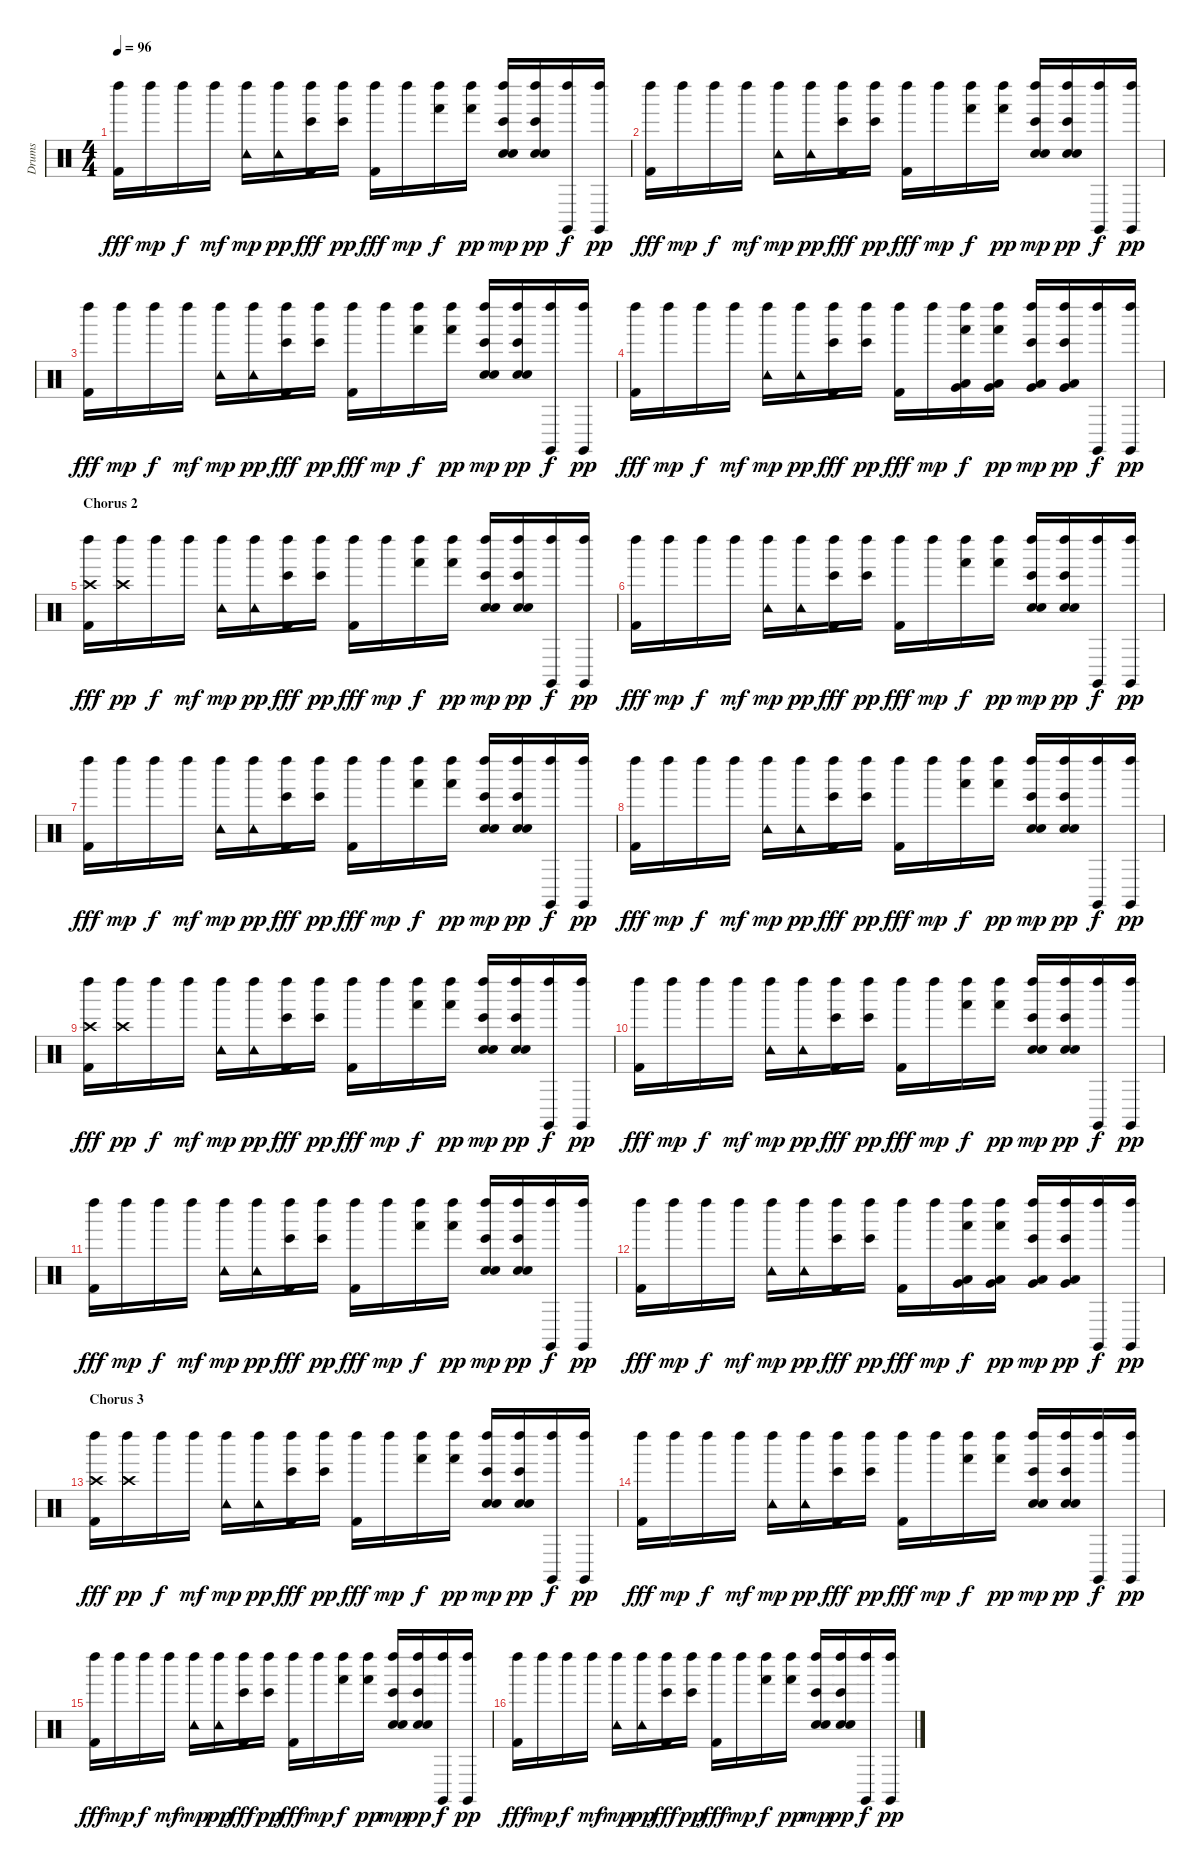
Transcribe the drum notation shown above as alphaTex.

\track ("Drums" "Drums") {instrument percussion}
\staff {score}
\articulation defaults
\ts (4 4)
\tempo 96
\clef neutral
\ks c
("Left Maraca (hit)" "Kick (hit) 2").16{dy fff} "Left Maraca (hit)".16{dy mp} "Left Maraca (hit)".16{dy f} "Left Maraca (hit)".16{dy mf} ("Left Maraca (hit)" "Tambourine (hit)").16{dy mp} ("Left Maraca (hit)" "Tambourine (hit)").16{dy pp} ("Left Maraca (hit)" "Bongo High (hit)" "Kick (hit) 2").16{dy fff} ("Left Maraca (hit)" "Bongo High (hit)").16{dy pp} ("Left Maraca (hit)" "Kick (hit) 2").16{dy fff} "Left Maraca (hit)".16{dy mp} ("Left Maraca (hit)" "Hand (hit)").16{dy f} ("Left Maraca (hit)" "Hand (hit)").16{dy pp} ("Left Maraca (hit)" "Bongo High (hit)" "Snare (hit) 2" "Electric Snare (hit)").16{dy mp} ("Left Maraca (hit)" "Bongo High (hit)" "Snare (hit) 2" "Electric Snare (hit)").16{dy pp} ("Left Maraca (hit)" "Claves (hit)").16{dy f} ("Left Maraca (hit)" "Claves (hit)").16{dy pp} |
("Left Maraca (hit)" "Kick (hit) 2").16{dy fff} "Left Maraca (hit)".16{dy mp} "Left Maraca (hit)".16{dy f} "Left Maraca (hit)".16{dy mf} ("Left Maraca (hit)" "Tambourine (hit)").16{dy mp} ("Left Maraca (hit)" "Tambourine (hit)").16{dy pp} ("Left Maraca (hit)" "Bongo High (hit)" "Kick (hit) 2").16{dy fff} ("Left Maraca (hit)" "Bongo High (hit)").16{dy pp} ("Left Maraca (hit)" "Kick (hit) 2").16{dy fff} "Left Maraca (hit)".16{dy mp} ("Left Maraca (hit)" "Hand (hit)").16{dy f} ("Left Maraca (hit)" "Hand (hit)").16{dy pp} ("Left Maraca (hit)" "Bongo High (hit)" "Snare (hit) 2" "Electric Snare (hit)").16{dy mp} ("Left Maraca (hit)" "Bongo High (hit)" "Snare (hit) 2" "Electric Snare (hit)").16{dy pp} ("Left Maraca (hit)" "Claves (hit)").16{dy f} ("Left Maraca (hit)" "Claves (hit)").16{dy pp} |
("Left Maraca (hit)" "Kick (hit) 2").16{dy fff} "Left Maraca (hit)".16{dy mp} "Left Maraca (hit)".16{dy f} "Left Maraca (hit)".16{dy mf} ("Left Maraca (hit)" "Tambourine (hit)").16{dy mp} ("Left Maraca (hit)" "Tambourine (hit)").16{dy pp} ("Left Maraca (hit)" "Bongo High (hit)" "Kick (hit) 2").16{dy fff} ("Left Maraca (hit)" "Bongo High (hit)").16{dy pp} ("Left Maraca (hit)" "Kick (hit) 2").16{dy fff} "Left Maraca (hit)".16{dy mp} ("Left Maraca (hit)" "Hand (hit)").16{dy f} ("Left Maraca (hit)" "Hand (hit)").16{dy pp} ("Left Maraca (hit)" "Bongo High (hit)" "Snare (hit) 2" "Electric Snare (hit)").16{dy mp} ("Left Maraca (hit)" "Bongo High (hit)" "Snare (hit) 2" "Electric Snare (hit)").16{dy pp} ("Left Maraca (hit)" "Claves (hit)").16{dy f} ("Left Maraca (hit)" "Claves (hit)").16{dy pp} |
("Left Maraca (hit)" "Kick (hit) 2").16{dy fff} "Left Maraca (hit)".16{dy mp} "Left Maraca (hit)".16{dy f} "Left Maraca (hit)".16{dy mf} ("Left Maraca (hit)" "Tambourine (hit)").16{dy mp} ("Left Maraca (hit)" "Tambourine (hit)").16{dy pp} ("Left Maraca (hit)" "Bongo High (hit)" "Kick (hit) 2").16{dy fff} ("Left Maraca (hit)" "Bongo High (hit)").16{dy pp} ("Left Maraca (hit)" "Kick (hit) 2").16{dy fff} "Left Maraca (hit)".16{dy mp} ("Left Maraca (hit)" "Hand (hit)" "Very Low Tom (hit)" "Low Floor Tom (hit)").16{dy f} ("Left Maraca (hit)" "Hand (hit)" "Very Low Tom (hit)" "Low Floor Tom (hit)").16{dy pp} ("Left Maraca (hit)" "Bongo High (hit)" "Very Low Tom (hit)" "Low Floor Tom (hit)").16{dy mp} ("Left Maraca (hit)" "Bongo High (hit)" "Very Low Tom (hit)" "Low Floor Tom (hit)").16{dy pp} ("Left Maraca (hit)" "Claves (hit)").16{dy f} ("Left Maraca (hit)" "Claves (hit)").16{dy pp} |
\section ("" "Chorus 2")
("Left Maraca (hit)" "Crash high (hit)" "Kick (hit) 2").16{dy fff} ("Left Maraca (hit)" "Crash high (hit)").16{dy pp} "Left Maraca (hit)".16{dy f} "Left Maraca (hit)".16{dy mf} ("Left Maraca (hit)" "Tambourine (hit)").16{dy mp} ("Left Maraca (hit)" "Tambourine (hit)").16{dy pp} ("Left Maraca (hit)" "Bongo High (hit)" "Kick (hit) 2").16{dy fff} ("Left Maraca (hit)" "Bongo High (hit)").16{dy pp} ("Left Maraca (hit)" "Kick (hit) 2").16{dy fff} "Left Maraca (hit)".16{dy mp} ("Left Maraca (hit)" "Hand (hit)").16{dy f} ("Left Maraca (hit)" "Hand (hit)").16{dy pp} ("Left Maraca (hit)" "Bongo High (hit)" "Snare (hit) 2" "Electric Snare (hit)").16{dy mp} ("Left Maraca (hit)" "Bongo High (hit)" "Snare (hit) 2" "Electric Snare (hit)").16{dy pp} ("Left Maraca (hit)" "Claves (hit)").16{dy f} ("Left Maraca (hit)" "Claves (hit)").16{dy pp} |
("Left Maraca (hit)" "Kick (hit) 2").16{dy fff} "Left Maraca (hit)".16{dy mp} "Left Maraca (hit)".16{dy f} "Left Maraca (hit)".16{dy mf} ("Left Maraca (hit)" "Tambourine (hit)").16{dy mp} ("Left Maraca (hit)" "Tambourine (hit)").16{dy pp} ("Left Maraca (hit)" "Bongo High (hit)" "Kick (hit) 2").16{dy fff} ("Left Maraca (hit)" "Bongo High (hit)").16{dy pp} ("Left Maraca (hit)" "Kick (hit) 2").16{dy fff} "Left Maraca (hit)".16{dy mp} ("Left Maraca (hit)" "Hand (hit)").16{dy f} ("Left Maraca (hit)" "Hand (hit)").16{dy pp} ("Left Maraca (hit)" "Bongo High (hit)" "Snare (hit) 2" "Electric Snare (hit)").16{dy mp} ("Left Maraca (hit)" "Bongo High (hit)" "Snare (hit) 2" "Electric Snare (hit)").16{dy pp} ("Left Maraca (hit)" "Claves (hit)").16{dy f} ("Left Maraca (hit)" "Claves (hit)").16{dy pp} |
("Left Maraca (hit)" "Kick (hit) 2").16{dy fff} "Left Maraca (hit)".16{dy mp} "Left Maraca (hit)".16{dy f} "Left Maraca (hit)".16{dy mf} ("Left Maraca (hit)" "Tambourine (hit)").16{dy mp} ("Left Maraca (hit)" "Tambourine (hit)").16{dy pp} ("Left Maraca (hit)" "Bongo High (hit)" "Kick (hit) 2").16{dy fff} ("Left Maraca (hit)" "Bongo High (hit)").16{dy pp} ("Left Maraca (hit)" "Kick (hit) 2").16{dy fff} "Left Maraca (hit)".16{dy mp} ("Left Maraca (hit)" "Hand (hit)").16{dy f} ("Left Maraca (hit)" "Hand (hit)").16{dy pp} ("Left Maraca (hit)" "Bongo High (hit)" "Snare (hit) 2" "Electric Snare (hit)").16{dy mp} ("Left Maraca (hit)" "Bongo High (hit)" "Snare (hit) 2" "Electric Snare (hit)").16{dy pp} ("Left Maraca (hit)" "Claves (hit)").16{dy f} ("Left Maraca (hit)" "Claves (hit)").16{dy pp} |
("Left Maraca (hit)" "Kick (hit) 2").16{dy fff} "Left Maraca (hit)".16{dy mp} "Left Maraca (hit)".16{dy f} "Left Maraca (hit)".16{dy mf} ("Left Maraca (hit)" "Tambourine (hit)").16{dy mp} ("Left Maraca (hit)" "Tambourine (hit)").16{dy pp} ("Left Maraca (hit)" "Bongo High (hit)" "Kick (hit) 2").16{dy fff} ("Left Maraca (hit)" "Bongo High (hit)").16{dy pp} ("Left Maraca (hit)" "Kick (hit) 2").16{dy fff} "Left Maraca (hit)".16{dy mp} ("Left Maraca (hit)" "Hand (hit)").16{dy f} ("Left Maraca (hit)" "Hand (hit)").16{dy pp} ("Left Maraca (hit)" "Bongo High (hit)" "Snare (hit) 2" "Electric Snare (hit)").16{dy mp} ("Left Maraca (hit)" "Bongo High (hit)" "Snare (hit) 2" "Electric Snare (hit)").16{dy pp} ("Left Maraca (hit)" "Claves (hit)").16{dy f} ("Left Maraca (hit)" "Claves (hit)").16{dy pp} |
("Left Maraca (hit)" "Crash high (hit)" "Kick (hit) 2").16{dy fff} ("Left Maraca (hit)" "Crash high (hit)").16{dy pp} "Left Maraca (hit)".16{dy f} "Left Maraca (hit)".16{dy mf} ("Left Maraca (hit)" "Tambourine (hit)").16{dy mp} ("Left Maraca (hit)" "Tambourine (hit)").16{dy pp} ("Left Maraca (hit)" "Bongo High (hit)" "Kick (hit) 2").16{dy fff} ("Left Maraca (hit)" "Bongo High (hit)").16{dy pp} ("Left Maraca (hit)" "Kick (hit) 2").16{dy fff} "Left Maraca (hit)".16{dy mp} ("Left Maraca (hit)" "Hand (hit)").16{dy f} ("Left Maraca (hit)" "Hand (hit)").16{dy pp} ("Left Maraca (hit)" "Bongo High (hit)" "Snare (hit) 2" "Electric Snare (hit)").16{dy mp} ("Left Maraca (hit)" "Bongo High (hit)" "Snare (hit) 2" "Electric Snare (hit)").16{dy pp} ("Left Maraca (hit)" "Claves (hit)").16{dy f} ("Left Maraca (hit)" "Claves (hit)").16{dy pp} |
("Left Maraca (hit)" "Kick (hit) 2").16{dy fff} "Left Maraca (hit)".16{dy mp} "Left Maraca (hit)".16{dy f} "Left Maraca (hit)".16{dy mf} ("Left Maraca (hit)" "Tambourine (hit)").16{dy mp} ("Left Maraca (hit)" "Tambourine (hit)").16{dy pp} ("Left Maraca (hit)" "Bongo High (hit)" "Kick (hit) 2").16{dy fff} ("Left Maraca (hit)" "Bongo High (hit)").16{dy pp} ("Left Maraca (hit)" "Kick (hit) 2").16{dy fff} "Left Maraca (hit)".16{dy mp} ("Left Maraca (hit)" "Hand (hit)").16{dy f} ("Left Maraca (hit)" "Hand (hit)").16{dy pp} ("Left Maraca (hit)" "Bongo High (hit)" "Snare (hit) 2" "Electric Snare (hit)").16{dy mp} ("Left Maraca (hit)" "Bongo High (hit)" "Snare (hit) 2" "Electric Snare (hit)").16{dy pp} ("Left Maraca (hit)" "Claves (hit)").16{dy f} ("Left Maraca (hit)" "Claves (hit)").16{dy pp} |
("Left Maraca (hit)" "Kick (hit) 2").16{dy fff} "Left Maraca (hit)".16{dy mp} "Left Maraca (hit)".16{dy f} "Left Maraca (hit)".16{dy mf} ("Left Maraca (hit)" "Tambourine (hit)").16{dy mp} ("Left Maraca (hit)" "Tambourine (hit)").16{dy pp} ("Left Maraca (hit)" "Bongo High (hit)" "Kick (hit) 2").16{dy fff} ("Left Maraca (hit)" "Bongo High (hit)").16{dy pp} ("Left Maraca (hit)" "Kick (hit) 2").16{dy fff} "Left Maraca (hit)".16{dy mp} ("Left Maraca (hit)" "Hand (hit)").16{dy f} ("Left Maraca (hit)" "Hand (hit)").16{dy pp} ("Left Maraca (hit)" "Bongo High (hit)" "Snare (hit) 2" "Electric Snare (hit)").16{dy mp} ("Left Maraca (hit)" "Bongo High (hit)" "Snare (hit) 2" "Electric Snare (hit)").16{dy pp} ("Left Maraca (hit)" "Claves (hit)").16{dy f} ("Left Maraca (hit)" "Claves (hit)").16{dy pp} |
("Left Maraca (hit)" "Kick (hit) 2").16{dy fff} "Left Maraca (hit)".16{dy mp} "Left Maraca (hit)".16{dy f} "Left Maraca (hit)".16{dy mf} ("Left Maraca (hit)" "Tambourine (hit)").16{dy mp} ("Left Maraca (hit)" "Tambourine (hit)").16{dy pp} ("Left Maraca (hit)" "Bongo High (hit)" "Kick (hit) 2").16{dy fff} ("Left Maraca (hit)" "Bongo High (hit)").16{dy pp} ("Left Maraca (hit)" "Kick (hit) 2").16{dy fff} "Left Maraca (hit)".16{dy mp} ("Hand (hit)" "Left Maraca (hit)" "Very Low Tom (hit)" "Low Tom (hit)").16{dy f} ("Left Maraca (hit)" "Hand (hit)" "Very Low Tom (hit)" "Low Tom (hit)").16{dy pp} ("Left Maraca (hit)" "Bongo High (hit)" "Very Low Tom (hit)" "Low Floor Tom (hit)").16{dy mp} ("Left Maraca (hit)" "Bongo High (hit)" "Very Low Tom (hit)" "Low Floor Tom (hit)").16{dy pp} ("Left Maraca (hit)" "Claves (hit)").16{dy f} ("Left Maraca (hit)" "Claves (hit)").16{dy pp} |
\section ("" "Chorus 3")
("Left Maraca (hit)" "Crash high (hit)" "Kick (hit) 2").16{dy fff} ("Left Maraca (hit)" "Crash high (hit)").16{dy pp} "Left Maraca (hit)".16{dy f} "Left Maraca (hit)".16{dy mf} ("Left Maraca (hit)" "Tambourine (hit)").16{dy mp} ("Left Maraca (hit)" "Tambourine (hit)").16{dy pp} ("Left Maraca (hit)" "Bongo High (hit)" "Kick (hit) 2").16{dy fff} ("Left Maraca (hit)" "Bongo High (hit)").16{dy pp} ("Left Maraca (hit)" "Kick (hit) 2").16{dy fff} "Left Maraca (hit)".16{dy mp} ("Left Maraca (hit)" "Hand (hit)").16{dy f} ("Left Maraca (hit)" "Hand (hit)").16{dy pp} ("Left Maraca (hit)" "Bongo High (hit)" "Snare (hit) 2" "Electric Snare (hit)").16{dy mp} ("Left Maraca (hit)" "Bongo High (hit)" "Snare (hit) 2" "Electric Snare (hit)").16{dy pp} ("Left Maraca (hit)" "Claves (hit)").16{dy f} ("Left Maraca (hit)" "Claves (hit)").16{dy pp} |
("Left Maraca (hit)" "Kick (hit) 2").16{dy fff} "Left Maraca (hit)".16{dy mp} "Left Maraca (hit)".16{dy f} "Left Maraca (hit)".16{dy mf} ("Left Maraca (hit)" "Tambourine (hit)").16{dy mp} ("Left Maraca (hit)" "Tambourine (hit)").16{dy pp} ("Left Maraca (hit)" "Bongo High (hit)" "Kick (hit) 2").16{dy fff} ("Left Maraca (hit)" "Bongo High (hit)").16{dy pp} ("Left Maraca (hit)" "Kick (hit) 2").16{dy fff} "Left Maraca (hit)".16{dy mp} ("Left Maraca (hit)" "Hand (hit)").16{dy f} ("Left Maraca (hit)" "Hand (hit)").16{dy pp} ("Left Maraca (hit)" "Bongo High (hit)" "Snare (hit) 2" "Electric Snare (hit)").16{dy mp} ("Left Maraca (hit)" "Bongo High (hit)" "Snare (hit) 2" "Electric Snare (hit)").16{dy pp} ("Left Maraca (hit)" "Claves (hit)").16{dy f} ("Left Maraca (hit)" "Claves (hit)").16{dy pp} |
("Left Maraca (hit)" "Kick (hit) 2").16{dy fff} "Left Maraca (hit)".16{dy mp} "Left Maraca (hit)".16{dy f} "Left Maraca (hit)".16{dy mf} ("Left Maraca (hit)" "Tambourine (hit)").16{dy mp} ("Left Maraca (hit)" "Tambourine (hit)").16{dy pp} ("Left Maraca (hit)" "Bongo High (hit)" "Kick (hit) 2").16{dy fff} ("Left Maraca (hit)" "Bongo High (hit)").16{dy pp} ("Left Maraca (hit)" "Kick (hit) 2").16{dy fff} "Left Maraca (hit)".16{dy mp} ("Left Maraca (hit)" "Hand (hit)").16{dy f} ("Left Maraca (hit)" "Hand (hit)").16{dy pp} ("Left Maraca (hit)" "Bongo High (hit)" "Snare (hit) 2" "Electric Snare (hit)").16{dy mp} ("Left Maraca (hit)" "Bongo High (hit)" "Snare (hit) 2" "Electric Snare (hit)").16{dy pp} ("Left Maraca (hit)" "Claves (hit)").16{dy f} ("Left Maraca (hit)" "Claves (hit)").16{dy pp} |
("Left Maraca (hit)" "Kick (hit) 2").16{dy fff} "Left Maraca (hit)".16{dy mp} "Left Maraca (hit)".16{dy f} "Left Maraca (hit)".16{dy mf} ("Left Maraca (hit)" "Tambourine (hit)").16{dy mp} ("Left Maraca (hit)" "Tambourine (hit)").16{dy pp} ("Left Maraca (hit)" "Bongo High (hit)" "Kick (hit) 2").16{dy fff} ("Left Maraca (hit)" "Bongo High (hit)").16{dy pp} ("Left Maraca (hit)" "Kick (hit) 2").16{dy fff} "Left Maraca (hit)".16{dy mp} ("Left Maraca (hit)" "Hand (hit)").16{dy f} ("Left Maraca (hit)" "Hand (hit)").16{dy pp} ("Left Maraca (hit)" "Bongo High (hit)" "Snare (hit) 2" "Electric Snare (hit)").16{dy mp} ("Left Maraca (hit)" "Bongo High (hit)" "Snare (hit) 2" "Electric Snare (hit)").16{dy pp} ("Left Maraca (hit)" "Claves (hit)").16{dy f} ("Left Maraca (hit)" "Claves (hit)").16{dy pp}
